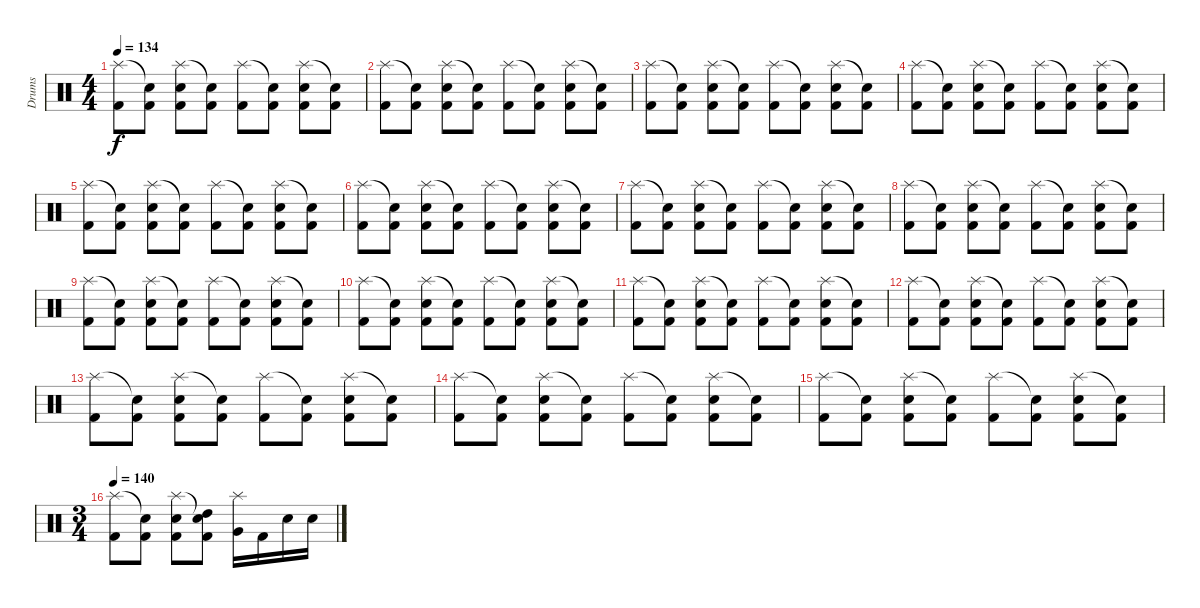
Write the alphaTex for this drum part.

\track ("Drums" "Drums") {instrument percussion}
\staff {score}
\articulation defaults
\ts (4 4)
\tempo 134
\clef neutral
\ks c
("Splash (hit)" "Kick (hit) 2").8{dy f} ("Snare (hit)"{t} "Kick (hit) 2").8 ("Splash (hit)" "Snare (hit) 2" "Kick (hit) 2").8 ("Snare (hit)"{t} "Kick (hit) 2").8 ("Splash (hit)" "Kick (hit) 2").8 ("Snare (hit)"{t} "Kick (hit) 2").8 ("Splash (hit)" "Snare (hit) 2" "Kick (hit) 2").8 ("Snare (hit)"{t} "Kick (hit) 2").8 |
("Splash (hit)" "Kick (hit) 2").8 ("Snare (hit)"{t} "Kick (hit) 2").8 ("Splash (hit)" "Snare (hit) 2" "Kick (hit) 2").8 ("Snare (hit)"{t} "Kick (hit) 2").8 ("Splash (hit)" "Kick (hit) 2").8 ("Snare (hit)"{t} "Kick (hit) 2").8 ("Splash (hit)" "Snare (hit) 2" "Kick (hit) 2").8 ("Snare (hit)"{t} "Kick (hit) 2").8 |
("Splash (hit)" "Kick (hit) 2").8 ("Snare (hit)"{t} "Kick (hit) 2").8 ("Splash (hit)" "Snare (hit) 2" "Kick (hit) 2").8 ("Snare (hit)"{t} "Kick (hit) 2").8 ("Splash (hit)" "Kick (hit) 2").8 ("Snare (hit)"{t} "Kick (hit) 2").8 ("Splash (hit)" "Snare (hit) 2" "Kick (hit) 2").8 ("Snare (hit)"{t} "Kick (hit) 2").8 |
("Splash (hit)" "Kick (hit) 2").8 ("Snare (hit)"{t} "Kick (hit) 2").8 ("Splash (hit)" "Snare (hit) 2" "Kick (hit) 2").8 ("Snare (hit)"{t} "Kick (hit) 2").8 ("Splash (hit)" "Kick (hit) 2").8 ("Snare (hit)"{t} "Kick (hit) 2").8 ("Splash (hit)" "Snare (hit) 2" "Kick (hit) 2").8 ("Snare (hit)"{t} "Kick (hit) 2").8 |
("Splash (hit)" "Kick (hit) 2").8 ("Snare (hit)"{t} "Kick (hit) 2").8 ("Splash (hit)" "Snare (hit) 2" "Kick (hit) 2").8 ("Snare (hit)"{t} "Kick (hit) 2").8 ("Splash (hit)" "Kick (hit) 2").8 ("Snare (hit)"{t} "Kick (hit) 2").8 ("Splash (hit)" "Snare (hit) 2" "Kick (hit) 2").8 ("Snare (hit)"{t} "Kick (hit) 2").8 |
("Splash (hit)" "Kick (hit) 2").8 ("Snare (hit)"{t} "Kick (hit) 2").8 ("Splash (hit)" "Snare (hit) 2" "Kick (hit) 2").8 ("Snare (hit)"{t} "Kick (hit) 2").8 ("Splash (hit)" "Kick (hit) 2").8 ("Snare (hit)"{t} "Kick (hit) 2").8 ("Splash (hit)" "Snare (hit) 2" "Kick (hit) 2").8 ("Snare (hit)"{t} "Kick (hit) 2").8 |
("Splash (hit)" "Kick (hit) 2").8 ("Snare (hit)"{t} "Kick (hit) 2").8 ("Splash (hit)" "Snare (hit) 2" "Kick (hit) 2").8 ("Snare (hit)"{t} "Kick (hit) 2").8 ("Splash (hit)" "Kick (hit) 2").8 ("Snare (hit)"{t} "Kick (hit) 2").8 ("Splash (hit)" "Snare (hit) 2" "Kick (hit) 2").8 ("Snare (hit)"{t} "Kick (hit) 2").8 |
("Splash (hit)" "Kick (hit) 2").8 ("Snare (hit)"{t} "Kick (hit) 2").8 ("Splash (hit)" "Snare (hit) 2" "Kick (hit) 2").8 ("Snare (hit)"{t} "Kick (hit) 2").8 ("Splash (hit)" "Kick (hit) 2").8 ("Snare (hit)"{t} "Kick (hit) 2").8 ("Splash (hit)" "Snare (hit) 2" "Kick (hit) 2").8 ("Snare (hit)"{t} "Kick (hit) 2").8 |
("Splash (hit)" "Kick (hit) 2").8 ("Snare (hit)"{t} "Kick (hit) 2").8 ("Splash (hit)" "Snare (hit) 2" "Kick (hit) 2").8 ("Snare (hit)"{t} "Kick (hit) 2").8 ("Splash (hit)" "Kick (hit) 2").8 ("Snare (hit)"{t} "Kick (hit) 2").8 ("Splash (hit)" "Snare (hit) 2" "Kick (hit) 2").8 ("Snare (hit)"{t} "Kick (hit) 2").8 |
("Splash (hit)" "Kick (hit) 2").8 ("Snare (hit)"{t} "Kick (hit) 2").8 ("Splash (hit)" "Snare (hit) 2" "Kick (hit) 2").8 ("Snare (hit)"{t} "Kick (hit) 2").8 ("Splash (hit)" "Kick (hit) 2").8 ("Snare (hit)"{t} "Kick (hit) 2").8 ("Splash (hit)" "Snare (hit) 2" "Kick (hit) 2").8 ("Snare (hit)"{t} "Kick (hit) 2").8 |
("Splash (hit)" "Kick (hit) 2").8 ("Snare (hit)"{t} "Kick (hit) 2").8 ("Splash (hit)" "Snare (hit) 2" "Kick (hit) 2").8 ("Snare (hit)"{t} "Kick (hit) 2").8 ("Splash (hit)" "Kick (hit) 2").8 ("Snare (hit)"{t} "Kick (hit) 2").8 ("Splash (hit)" "Snare (hit) 2" "Kick (hit) 2").8 ("Snare (hit)"{t} "Kick (hit) 2").8 |
("Splash (hit)" "Kick (hit) 2").8 ("Snare (hit)"{t} "Kick (hit) 2").8 ("Splash (hit)" "Snare (hit) 2" "Kick (hit) 2").8 ("Snare (hit)"{t} "Kick (hit) 2").8 ("Splash (hit)" "Kick (hit) 2").8 ("Snare (hit)"{t} "Kick (hit) 2").8 ("Splash (hit)" "Snare (hit) 2" "Kick (hit) 2").8 ("Snare (hit)"{t} "Kick (hit) 2").8 |
("Splash (hit)" "Kick (hit) 2").8 ("Snare (hit)"{t} "Kick (hit) 2").8 ("Splash (hit)" "Snare (hit) 2" "Kick (hit) 2").8 ("Snare (hit)"{t} "Kick (hit) 2").8 ("Splash (hit)" "Kick (hit) 2").8 ("Snare (hit)"{t} "Kick (hit) 2").8 ("Splash (hit)" "Snare (hit) 2" "Kick (hit) 2").8 ("Snare (hit)"{t} "Kick (hit) 2").8 |
("Splash (hit)" "Kick (hit) 2").8 ("Snare (hit)"{t} "Kick (hit) 2").8 ("Splash (hit)" "Snare (hit) 2" "Kick (hit) 2").8 ("Snare (hit)"{t} "Kick (hit) 2").8 ("Splash (hit)" "Kick (hit) 2").8 ("Snare (hit)"{t} "Kick (hit) 2").8 ("Splash (hit)" "Snare (hit) 2" "Kick (hit) 2").8 ("Snare (hit)"{t} "Kick (hit) 2").8 |
("Splash (hit)" "Kick (hit) 2").8 ("Snare (hit)"{t} "Kick (hit) 2").8 ("Splash (hit)" "Snare (hit) 2" "Kick (hit) 2").8 ("Snare (hit)"{t} "Kick (hit) 2").8 ("Splash (hit)" "Kick (hit) 2").8 ("Snare (hit)"{t} "Kick (hit) 2").8 ("Splash (hit)" "Snare (hit) 2" "Kick (hit) 2").8 ("Snare (hit)"{t} "Kick (hit) 2").8 |
\ts (3 4)
\tempo 140
("Splash (hit)" "Kick (hit) 2").8 ("Snare (hit)"{t} "Kick (hit) 2").8 ("Splash (hit)" "Snare (hit) 2" "Kick (hit) 2").8 ("Snare (hit)"{t} "High Tom (hit)" "Kick (hit) 2").8 ("Splash (hit)" "Very Low Tom (hit)").16 "Kick (hit) 2".16 "Snare (hit) 2".16 "Snare (hit) 2".16
